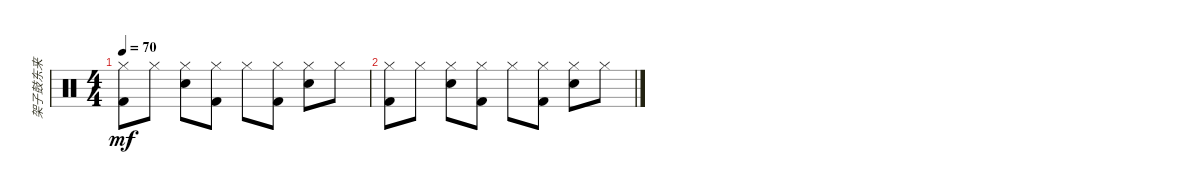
\track ("架子鼓东来" "架子鼓东来") {instrument percussion}
\staff {score}
\articulation defaults
\ts (4 4)
\tempo 70
\clef neutral
\ks c
("Hi-Hat (closed)" "Kick (hit) 2").8{dy mf} "Hi-Hat (closed)".8 ("Hi-Hat (closed)" "Snare (hit) 2").8 ("Hi-Hat (closed)" "Kick (hit) 2").8 "Hi-Hat (closed)".8 ("Hi-Hat (closed)" "Kick (hit) 2").8 ("Hi-Hat (closed)" "Snare (hit) 2").8 "Hi-Hat (closed)".8 |
("Hi-Hat (closed)" "Kick (hit) 2").8 "Hi-Hat (closed)".8 ("Hi-Hat (closed)" "Snare (hit) 2").8 ("Hi-Hat (closed)" "Kick (hit) 2").8 "Hi-Hat (closed)".8 ("Hi-Hat (closed)" "Kick (hit) 2").8 ("Hi-Hat (closed)" "Snare (hit) 2").8 "Hi-Hat (closed)".8
